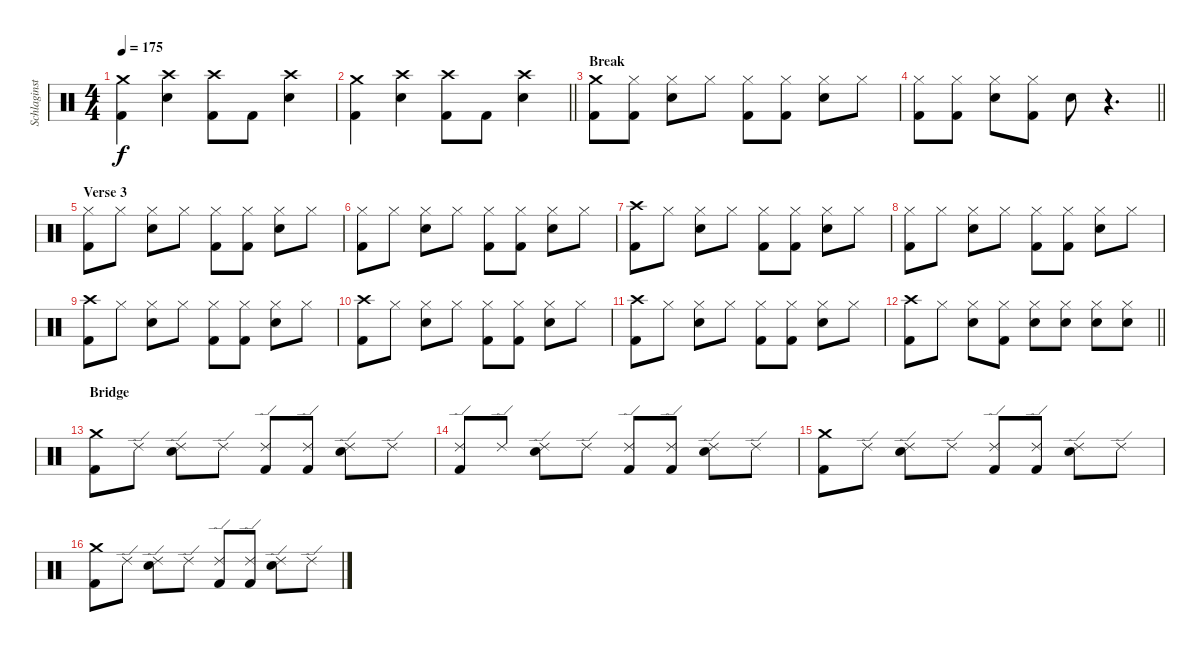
\track ("Schlaginstrumente - Auswahl" "Schlaginst") {instrument percussion}
\staff {score}
\articulation defaults
\ts (4 4)
\tempo 175
\clef neutral
\ks c
("Crash medium (hit)" "Kick (hit) 2").4{dy f} ("Crash high (hit)" "Snare (hit) 2").4 ("Crash high (hit)" "Kick (hit) 2").8 "Kick (hit) 2".8 ("Crash high (hit)" "Snare (hit) 2").4 |
\barLineRight lightlight
("Crash medium (hit)" "Kick (hit) 2").4 ("Crash high (hit)" "Snare (hit) 2").4 ("Crash high (hit)" "Kick (hit) 2").8 "Kick (hit) 2".8 ("Crash high (hit)" "Snare (hit) 2").4 |
\section ("" "Break")
("Crash medium (hit)" "Kick (hit) 2").8 ("Hi-Hat (closed)" "Kick (hit) 2").8 ("Hi-Hat (closed)" "Snare (hit) 2").8 "Hi-Hat (closed)".8 ("Hi-Hat (closed)" "Kick (hit) 2").8 ("Hi-Hat (closed)" "Kick (hit) 2").8 ("Hi-Hat (closed)" "Snare (hit) 2").8 "Hi-Hat (closed)".8 |
\barLineRight lightlight
("Hi-Hat (closed)" "Kick (hit) 2").8 ("Hi-Hat (closed)" "Kick (hit) 2").8 ("Hi-Hat (closed)" "Snare (hit) 2").8 ("Hi-Hat (closed)" "Kick (hit) 2").8 "Snare (hit) 2".8 r.4{d} |
\section ("" "Verse 3")
("Hi-Hat (closed)" "Kick (hit) 2").8 "Hi-Hat (closed)".8 ("Hi-Hat (closed)" "Snare (hit) 2").8 "Hi-Hat (closed)".8 ("Hi-Hat (closed)" "Kick (hit) 2").8 ("Hi-Hat (closed)" "Kick (hit) 2").8 ("Hi-Hat (closed)" "Snare (hit) 2").8 "Hi-Hat (closed)".8 |
("Hi-Hat (closed)" "Kick (hit) 2").8 "Hi-Hat (closed)".8 ("Hi-Hat (closed)" "Snare (hit) 2").8 "Hi-Hat (closed)".8 ("Hi-Hat (closed)" "Kick (hit) 2").8 ("Hi-Hat (closed)" "Kick (hit) 2").8 ("Hi-Hat (closed)" "Snare (hit) 2").8 "Hi-Hat (closed)".8 |
("Crash high (hit)" "Kick (hit) 2").8 "Hi-Hat (closed)".8 ("Hi-Hat (closed)" "Snare (hit) 2").8 "Hi-Hat (closed)".8 ("Hi-Hat (closed)" "Kick (hit) 2").8 ("Hi-Hat (closed)" "Kick (hit) 2").8 ("Hi-Hat (closed)" "Snare (hit) 2").8 "Hi-Hat (closed)".8 |
("Hi-Hat (closed)" "Kick (hit) 2").8 "Hi-Hat (closed)".8 ("Hi-Hat (closed)" "Snare (hit) 2").8 "Hi-Hat (closed)".8 ("Hi-Hat (closed)" "Kick (hit) 2").8 ("Hi-Hat (closed)" "Kick (hit) 2").8 ("Hi-Hat (closed)" "Snare (hit) 2").8 "Hi-Hat (closed)".8 |
("Crash high (hit)" "Kick (hit) 2").8 "Hi-Hat (closed)".8 ("Hi-Hat (closed)" "Snare (hit) 2").8 "Hi-Hat (closed)".8 ("Hi-Hat (closed)" "Kick (hit) 2").8 ("Hi-Hat (closed)" "Kick (hit) 2").8 ("Hi-Hat (closed)" "Snare (hit) 2").8 "Hi-Hat (closed)".8 |
("Crash high (hit)" "Kick (hit) 2").8 "Hi-Hat (closed)".8 ("Hi-Hat (closed)" "Snare (hit) 2").8 "Hi-Hat (closed)".8 ("Hi-Hat (closed)" "Kick (hit) 2").8 ("Hi-Hat (closed)" "Kick (hit) 2").8 ("Hi-Hat (closed)" "Snare (hit) 2").8 "Hi-Hat (closed)".8 |
("Crash high (hit)" "Kick (hit) 2").8 "Hi-Hat (closed)".8 ("Hi-Hat (closed)" "Snare (hit) 2").8 "Hi-Hat (closed)".8 ("Hi-Hat (closed)" "Kick (hit) 2").8 ("Hi-Hat (closed)" "Kick (hit) 2").8 ("Hi-Hat (closed)" "Snare (hit) 2").8 "Hi-Hat (closed)".8 |
\barLineRight lightlight
("Crash high (hit)" "Kick (hit) 2").8 "Hi-Hat (closed)".8 ("Hi-Hat (closed)" "Snare (hit) 2").8 ("Hi-Hat (closed)" "Kick (hit) 2").8 ("Hi-Hat (closed)" "Snare (hit) 2").8 ("Hi-Hat (closed)" "Snare (hit) 2").8 ("Hi-Hat (closed)" "Snare (hit) 2").8 ("Hi-Hat (closed)" "Snare (hit) 2").8 |
\section ("" "Bridge")
("Crash medium (hit)" "Kick (hit) 2").8 "Ride (edge) 2".8 ("Ride (edge) 2" "Snare (hit) 2").8 "Ride (edge) 2".8 ("Ride (edge) 2" "Kick (hit) 2").8 ("Ride (edge) 2" "Kick (hit) 2").8 ("Ride (edge) 2" "Snare (hit) 2").8 "Ride (edge) 2".8 |
("Ride (edge) 2" "Kick (hit) 2").8 "Ride (edge) 2".8 ("Ride (edge) 2" "Snare (hit) 2").8 "Ride (edge) 2".8 ("Ride (edge) 2" "Kick (hit) 2").8 ("Ride (edge) 2" "Kick (hit) 2").8 ("Ride (edge) 2" "Snare (hit) 2").8 "Ride (edge) 2".8 |
("Crash medium (hit)" "Kick (hit) 2").8 "Ride (edge) 2".8 ("Ride (edge) 2" "Snare (hit) 2").8 "Ride (edge) 2".8 ("Ride (edge) 2" "Kick (hit) 2").8 ("Ride (edge) 2" "Kick (hit) 2").8 ("Ride (edge) 2" "Snare (hit) 2").8 "Ride (edge) 2".8 |
("Crash medium (hit)" "Kick (hit) 2").8 "Ride (edge) 2".8 ("Ride (edge) 2" "Snare (hit) 2").8 "Ride (edge) 2".8 ("Ride (edge) 2" "Kick (hit) 2").8 ("Ride (edge) 2" "Kick (hit) 2").8 ("Ride (edge) 2" "Snare (hit) 2").8 "Ride (edge) 2".8
